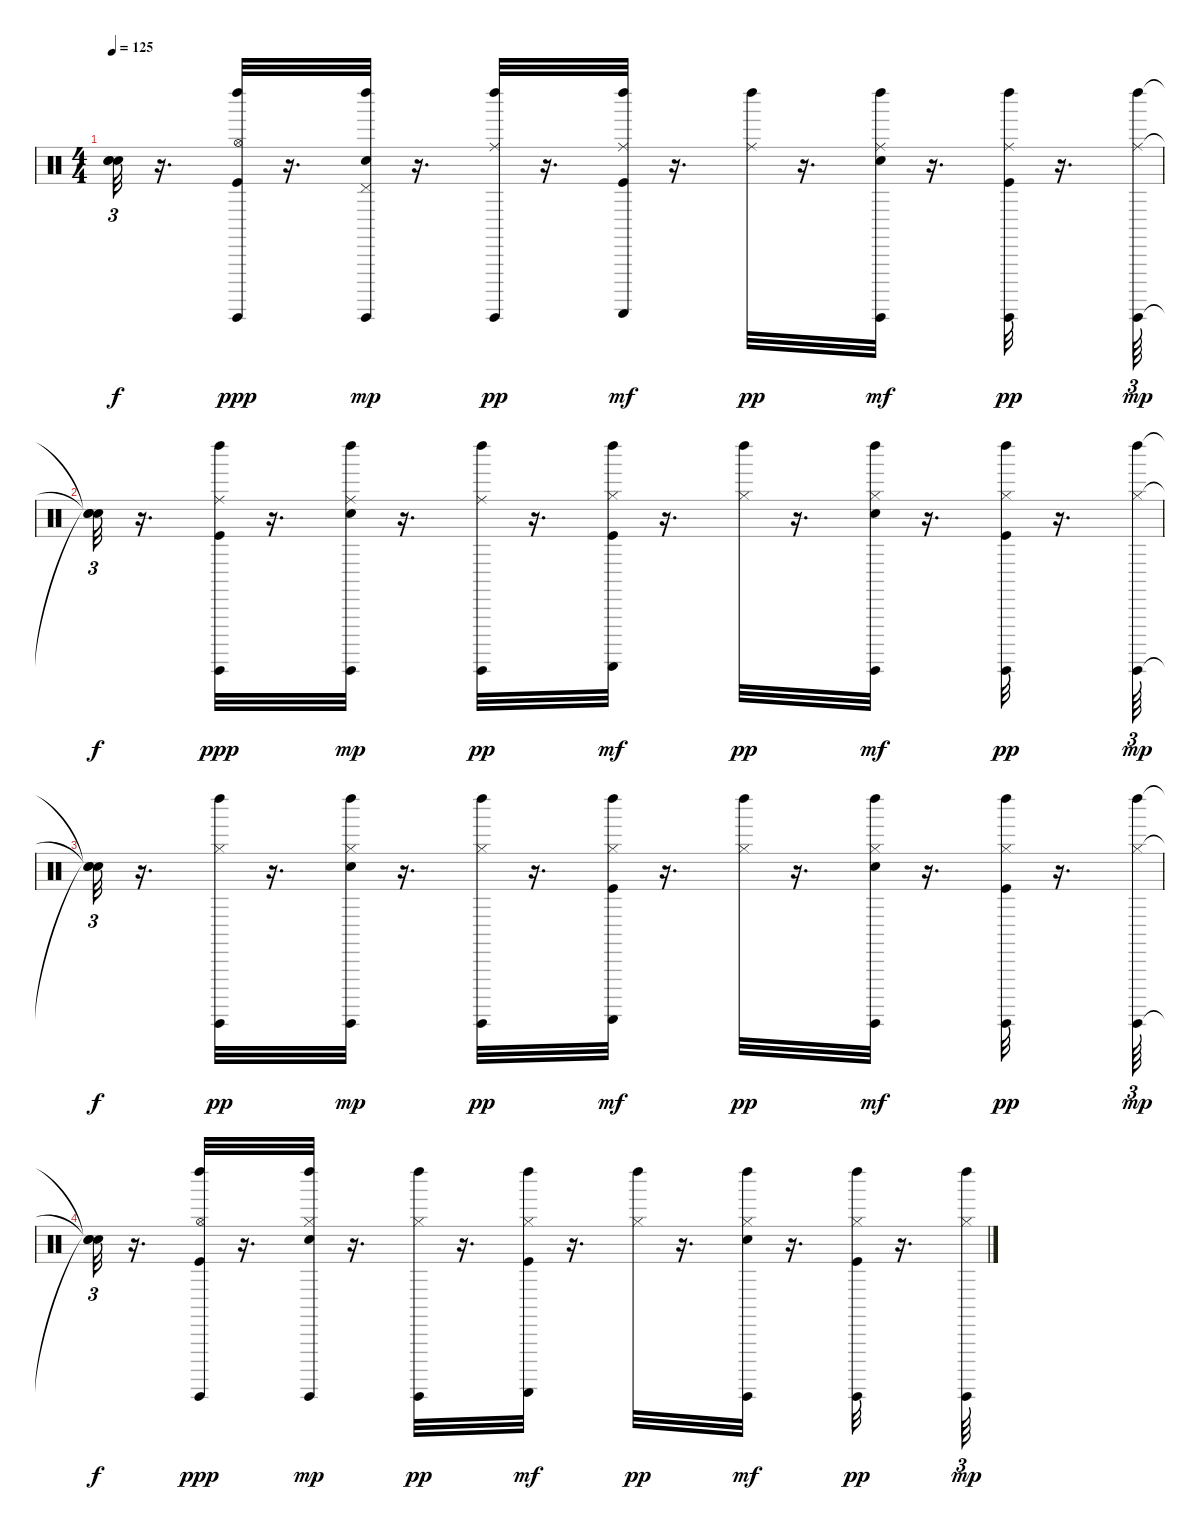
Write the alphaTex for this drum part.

\track "" {instrument percussion}
\staff {score}
\articulation defaults
\ts (4 4)
\tempo 125
\clef neutral
\ks c
("Snare (hit)"{t} "Snare (hit)"{t} "Snare (hit)"{t}).32{tu (3 2) dy f} r.16{d} ("Kick (hit)" "Hi-Hat (open)" "Left Maraca (hit)" "Guiro (hit)").32{dy ppp} r.16{d} ("Electric Snare (hit)" "Left Maraca (hit)" "Pedal Hi-Hat (hit)" "Guiro (hit)").32{dy mp} r.16{d} ("Ride (middle)" "Left Maraca (hit)" "Guiro (hit)").32{dy pp} r.16{d} ("Ride (middle)" "Left Maraca (hit)" "Kick (hit)" "Guiro (scrap-return)").32{dy mf} r.16{d} ("Left Maraca (hit)" "Ride (middle)").32{dy pp} r.16{d} ("Ride (middle)" "Electric Snare (hit)" "Left Maraca (hit)" "Guiro (hit)").32{dy mf} r.16{d} ("Ride (middle)" "Left Maraca (hit)" "Kick (hit)" "Guiro (hit)").32{dy pp} r.16{d} ("Ride (middle)" "Left Maraca (hit)" "Guiro (hit)").64{tu (3 2) dy mp} |
("Snare (hit)"{t} "Snare (hit)"{t} "Snare (hit)"{t}).32{tu (3 2) dy f} r.16{d} ("Kick (hit)" "Left Maraca (hit)" "Ride (middle)" "Guiro (hit)").32{dy ppp} r.16{d} ("Ride (middle)" "Left Maraca (hit)" "Electric Snare (hit)" "Guiro (hit)").32{dy mp} r.16{d} ("Left Maraca (hit)" "Ride (middle)" "Guiro (hit)").32{dy pp} r.16{d} ("Kick (hit)" "Hi-Hat (closed)" "Left Maraca (hit)" "Guiro (scrap-return)").32{dy mf} r.16{d} ("Left Maraca (hit)" "Hi-Hat (closed)").32{dy pp} r.16{d} ("Left Maraca (hit)" "Hi-Hat (closed)" "Electric Snare (hit)" "Guiro (hit)").32{dy mf} r.16{d} ("Left Maraca (hit)" "Hi-Hat (closed)" "Kick (hit)" "Guiro (hit)").32{dy pp} r.16{d} ("Hi-Hat (closed)" "Left Maraca (hit)" "Guiro (hit)").64{tu (3 2) dy mp} |
("Snare (hit)"{t} "Snare (hit)"{t} "Snare (hit)"{t}).32{tu (3 2) dy f} r.16{d} ("Hi-Hat (closed)" "Left Maraca (hit)" "Guiro (hit)").32{dy pp} r.16{d} ("Hi-Hat (closed)" "Left Maraca (hit)" "Electric Snare (hit)" "Guiro (hit)").32{dy mp} r.16{d} ("Left Maraca (hit)" "Hi-Hat (closed)" "Guiro (hit)").32{dy pp} r.16{d} ("Hi-Hat (closed)" "Left Maraca (hit)" "Kick (hit)" "Guiro (scrap-return)").32{dy mf} r.16{d} ("Left Maraca (hit)" "Hi-Hat (closed)").32{dy pp} r.16{d} ("Electric Snare (hit)" "Hi-Hat (closed)" "Left Maraca (hit)" "Guiro (hit)").32{dy mf} r.16{d} ("Hi-Hat (closed)" "Left Maraca (hit)" "Kick (hit)" "Guiro (hit)").32{dy pp} r.16{d} ("Left Maraca (hit)" "Hi-Hat (closed)" "Guiro (hit)").64{tu (3 2) dy mp} |
("Snare (hit)"{t} "Snare (hit)"{t} "Snare (hit)"{t}).32{tu (3 2) dy f} r.16{d} ("Hi-Hat (open)" "Left Maraca (hit)" "Kick (hit)" "Guiro (hit)").32{dy ppp} r.16{d} ("Electric Snare (hit)" "Hi-Hat (closed)" "Left Maraca (hit)" "Guiro (hit)").32{dy mp} r.16{d} ("Left Maraca (hit)" "Hi-Hat (closed)" "Guiro (hit)").32{dy pp} r.16{d} ("Left Maraca (hit)" "Kick (hit)" "Hi-Hat (closed)" "Guiro (scrap-return)").32{dy mf} r.16{d} ("Left Maraca (hit)" "Hi-Hat (closed)").32{dy pp} r.16{d} ("Hi-Hat (closed)" "Left Maraca (hit)" "Electric Snare (hit)" "Guiro (hit)").32{dy mf} r.16{d} ("Left Maraca (hit)" "Hi-Hat (closed)" "Kick (hit)" "Guiro (hit)").32{dy pp} r.16{d} ("Hi-Hat (closed)" "Left Maraca (hit)" "Guiro (hit)").64{tu (3 2) dy mp}
